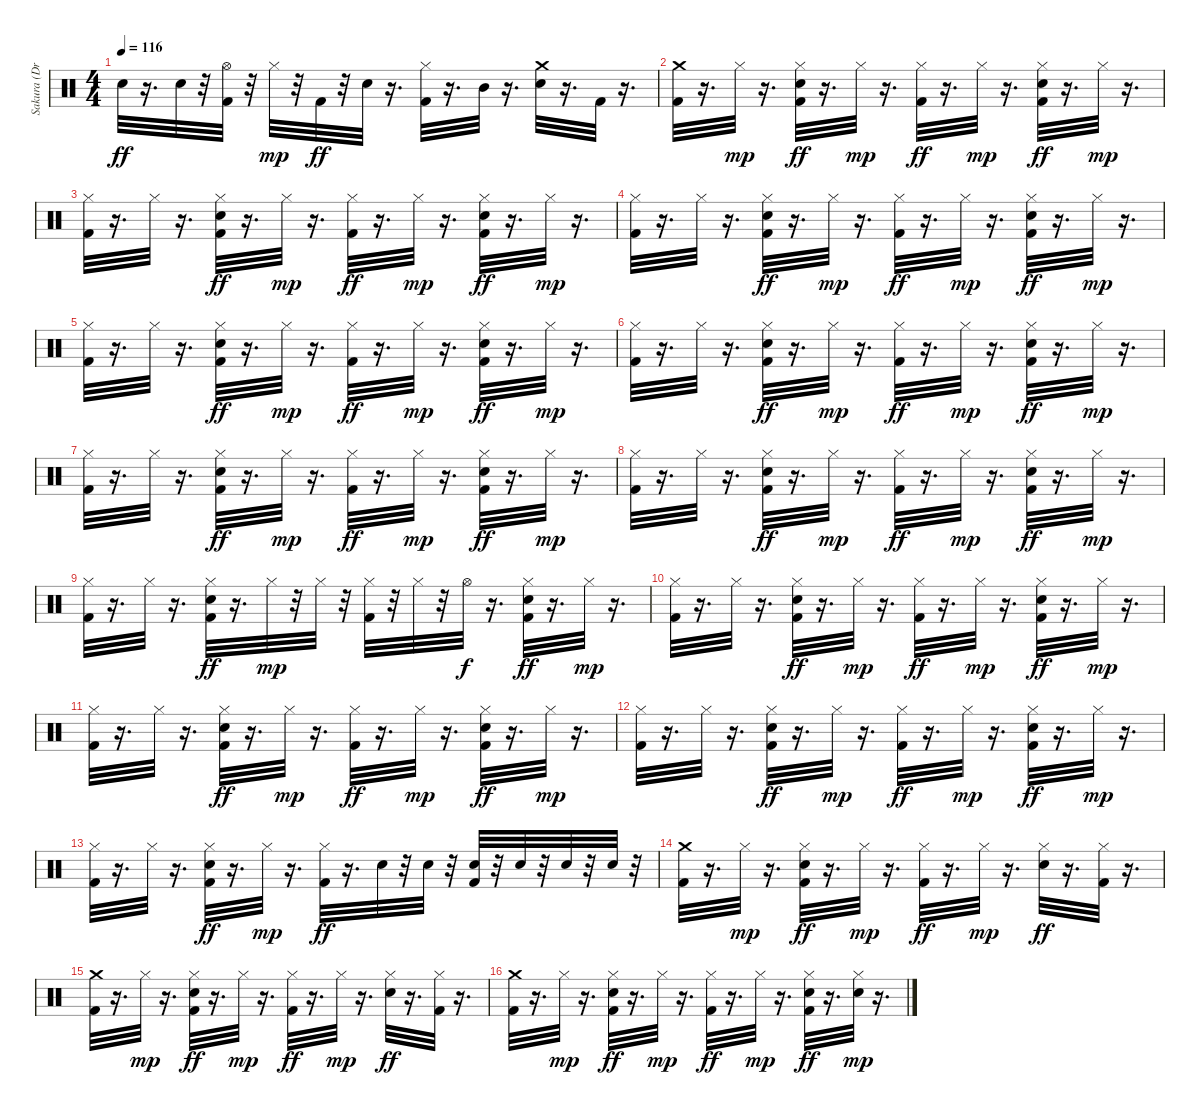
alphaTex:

\track ("Sakura (Drums)" "Sakura (Dr") {instrument percussion}
\staff {score}
\articulation defaults
\ts (4 4)
\tempo 116
\clef neutral
\ks c "Electric Snare (hit)".32{dy ff}
r.16{d} "Electric Snare (hit)".32 r.32 ("Hi-Hat (open)" "Kick (hit) 2").32 r.32 "Hi-Hat (closed)".32{dy mp} r.32 "Kick (hit) 2".32{dy ff} r.32 "Electric Snare (hit)".32 r.16{d} ("Hi-Hat (closed)" "Kick (hit) 2").32 r.16{d} "Mid Tom (hit)".32 r.16{d} ("Crash medium (hit)" "Electric Snare (hit)").32 r.16{d} "Kick (hit) 2".32 r.16{d} |
("Crash medium (hit)" "Kick (hit) 2").32 r.16{d} "Hi-Hat (closed)".32{dy mp} r.16{d} ("Hi-Hat (closed)" "Electric Snare (hit)" "Kick (hit) 2").32{dy ff} r.16{d} "Hi-Hat (closed)".32{dy mp} r.16{d} ("Hi-Hat (closed)" "Kick (hit) 2").32{dy ff} r.16{d} "Hi-Hat (closed)".32{dy mp} r.16{d} ("Hi-Hat (closed)" "Electric Snare (hit)" "Kick (hit) 2").32{dy ff} r.16{d} "Hi-Hat (closed)".32{dy mp} r.16{d} |
("Kick (hit) 2" "Hi-Hat (closed)").32 r.16{d} "Hi-Hat (closed)".32 r.16{d} ("Hi-Hat (closed)" "Electric Snare (hit)" "Kick (hit) 2").32{dy ff} r.16{d} "Hi-Hat (closed)".32{dy mp} r.16{d} ("Hi-Hat (closed)" "Kick (hit) 2").32{dy ff} r.16{d} "Hi-Hat (closed)".32{dy mp} r.16{d} ("Hi-Hat (closed)" "Electric Snare (hit)" "Kick (hit) 2").32{dy ff} r.16{d} "Hi-Hat (closed)".32{dy mp} r.16{d} |
("Kick (hit) 2" "Hi-Hat (closed)").32 r.16{d} "Hi-Hat (closed)".32 r.16{d} ("Hi-Hat (closed)" "Electric Snare (hit)" "Kick (hit) 2").32{dy ff} r.16{d} "Hi-Hat (closed)".32{dy mp} r.16{d} ("Hi-Hat (closed)" "Kick (hit) 2").32{dy ff} r.16{d} "Hi-Hat (closed)".32{dy mp} r.16{d} ("Hi-Hat (closed)" "Electric Snare (hit)" "Kick (hit) 2").32{dy ff} r.16{d} "Hi-Hat (closed)".32{dy mp} r.16{d} |
("Kick (hit) 2" "Hi-Hat (closed)").32 r.16{d} "Hi-Hat (closed)".32 r.16{d} ("Hi-Hat (closed)" "Electric Snare (hit)" "Kick (hit) 2").32{dy ff} r.16{d} "Hi-Hat (closed)".32{dy mp} r.16{d} ("Hi-Hat (closed)" "Kick (hit) 2").32{dy ff} r.16{d} "Hi-Hat (closed)".32{dy mp} r.16{d} ("Hi-Hat (closed)" "Electric Snare (hit)" "Kick (hit) 2").32{dy ff} r.16{d} "Hi-Hat (closed)".32{dy mp} r.16{d} |
("Kick (hit) 2" "Hi-Hat (closed)").32 r.16{d} "Hi-Hat (closed)".32 r.16{d} ("Hi-Hat (closed)" "Electric Snare (hit)" "Kick (hit) 2").32{dy ff} r.16{d} "Hi-Hat (closed)".32{dy mp} r.16{d} ("Hi-Hat (closed)" "Kick (hit) 2").32{dy ff} r.16{d} "Hi-Hat (closed)".32{dy mp} r.16{d} ("Hi-Hat (closed)" "Electric Snare (hit)" "Kick (hit) 2").32{dy ff} r.16{d} "Hi-Hat (closed)".32{dy mp} r.16{d} |
("Kick (hit) 2" "Hi-Hat (closed)").32 r.16{d} "Hi-Hat (closed)".32 r.16{d} ("Hi-Hat (closed)" "Electric Snare (hit)" "Kick (hit) 2").32{dy ff} r.16{d} "Hi-Hat (closed)".32{dy mp} r.16{d} ("Hi-Hat (closed)" "Kick (hit) 2").32{dy ff} r.16{d} "Hi-Hat (closed)".32{dy mp} r.16{d} ("Hi-Hat (closed)" "Electric Snare (hit)" "Kick (hit) 2").32{dy ff} r.16{d} "Hi-Hat (closed)".32{dy mp} r.16{d} |
("Kick (hit) 2" "Hi-Hat (closed)").32 r.16{d} "Hi-Hat (closed)".32 r.16{d} ("Hi-Hat (closed)" "Electric Snare (hit)" "Kick (hit) 2").32{dy ff} r.16{d} "Hi-Hat (closed)".32{dy mp} r.16{d} ("Hi-Hat (closed)" "Kick (hit) 2").32{dy ff} r.16{d} "Hi-Hat (closed)".32{dy mp} r.16{d} ("Hi-Hat (closed)" "Electric Snare (hit)" "Kick (hit) 2").32{dy ff} r.16{d} "Hi-Hat (closed)".32{dy mp} r.16{d} |
("Kick (hit) 2" "Hi-Hat (closed)").32 r.16{d} "Hi-Hat (closed)".32 r.16{d} ("Hi-Hat (closed)" "Electric Snare (hit)" "Kick (hit) 2").32{dy ff} r.16{d} "Hi-Hat (closed)".32{dy mp} r.32 "Hi-Hat (closed)".32 r.32 ("Kick (hit) 2" "Hi-Hat (closed)").32 r.32 "Hi-Hat (closed)".32 r.32 "Hi-Hat (open)".32{dy f} r.16{d} ("Hi-Hat (closed)" "Electric Snare (hit)" "Kick (hit) 2").32{dy ff} r.16{d} "Hi-Hat (closed)".32{dy mp} r.16{d} |
("Kick (hit) 2" "Hi-Hat (closed)").32 r.16{d} "Hi-Hat (closed)".32 r.16{d} ("Hi-Hat (closed)" "Electric Snare (hit)" "Kick (hit) 2").32{dy ff} r.16{d} "Hi-Hat (closed)".32{dy mp} r.16{d} ("Hi-Hat (closed)" "Kick (hit) 2").32{dy ff} r.16{d} "Hi-Hat (closed)".32{dy mp} r.16{d} ("Hi-Hat (closed)" "Electric Snare (hit)" "Kick (hit) 2").32{dy ff} r.16{d} "Hi-Hat (closed)".32{dy mp} r.16{d} |
("Kick (hit) 2" "Hi-Hat (closed)").32 r.16{d} "Hi-Hat (closed)".32 r.16{d} ("Hi-Hat (closed)" "Electric Snare (hit)" "Kick (hit) 2").32{dy ff} r.16{d} "Hi-Hat (closed)".32{dy mp} r.16{d} ("Hi-Hat (closed)" "Kick (hit) 2").32{dy ff} r.16{d} "Hi-Hat (closed)".32{dy mp} r.16{d} ("Hi-Hat (closed)" "Electric Snare (hit)" "Kick (hit) 2").32{dy ff} r.16{d} "Hi-Hat (closed)".32{dy mp} r.16{d} |
("Kick (hit) 2" "Hi-Hat (closed)").32 r.16{d} "Hi-Hat (closed)".32 r.16{d} ("Hi-Hat (closed)" "Electric Snare (hit)" "Kick (hit) 2").32{dy ff} r.16{d} "Hi-Hat (closed)".32{dy mp} r.16{d} ("Hi-Hat (closed)" "Kick (hit) 2").32{dy ff} r.16{d} "Hi-Hat (closed)".32{dy mp} r.16{d} ("Hi-Hat (closed)" "Electric Snare (hit)" "Kick (hit) 2").32{dy ff} r.16{d} "Hi-Hat (closed)".32{dy mp} r.16{d} |
("Kick (hit) 2" "Hi-Hat (closed)").32 r.16{d} "Hi-Hat (closed)".32 r.16{d} ("Hi-Hat (closed)" "Electric Snare (hit)" "Kick (hit) 2").32{dy ff} r.16{d} "Hi-Hat (closed)".32{dy mp} r.16{d} ("Hi-Hat (closed)" "Kick (hit) 2").32{dy ff} r.16{d} "Electric Snare (hit)".32 r.32 "Electric Snare (hit)".32 r.32 ("Kick (hit) 2" "Electric Snare (hit)").32 r.32 "Electric Snare (hit)".32 r.32 "Electric Snare (hit)".32 r.32 "Electric Snare (hit)".32 r.32 |
("Kick (hit) 2" "Crash medium (hit)").32 r.16{d} "Hi-Hat (closed)".32{dy mp} r.16{d} ("Hi-Hat (closed)" "Electric Snare (hit)" "Kick (hit) 2").32{dy ff} r.16{d} "Hi-Hat (closed)".32{dy mp} r.16{d} ("Hi-Hat (closed)" "Kick (hit) 2").32{dy ff} r.16{d} "Hi-Hat (closed)".32{dy mp} r.16{d} ("Hi-Hat (closed)" "Electric Snare (hit)").32{dy ff} r.16{d} ("Hi-Hat (closed)" "Kick (hit) 2").32 r.16{d} |
("Kick (hit) 2" "Crash medium (hit)").32 r.16{d} "Hi-Hat (closed)".32{dy mp} r.16{d} ("Hi-Hat (closed)" "Electric Snare (hit)" "Kick (hit) 2").32{dy ff} r.16{d} "Hi-Hat (closed)".32{dy mp} r.16{d} ("Hi-Hat (closed)" "Kick (hit) 2").32{dy ff} r.16{d} "Hi-Hat (closed)".32{dy mp} r.16{d} ("Hi-Hat (closed)" "Electric Snare (hit)").32{dy ff} r.16{d} ("Hi-Hat (closed)" "Kick (hit) 2").32 r.16{d} |
("Kick (hit) 2" "Crash medium (hit)").32 r.16{d} "Hi-Hat (closed)".32{dy mp} r.16{d} ("Hi-Hat (closed)" "Electric Snare (hit)" "Kick (hit) 2").32{dy ff} r.16{d} "Hi-Hat (closed)".32{dy mp} r.16{d} ("Hi-Hat (closed)" "Kick (hit) 2").32{dy ff} r.16{d} "Hi-Hat (closed)".32{dy mp} r.16{d} ("Hi-Hat (closed)" "Electric Snare (hit)" "Kick (hit) 2").32{dy ff} r.16{d} ("Hi-Hat (closed)" "Electric Snare (hit)").32{dy mp} r.16{d}
